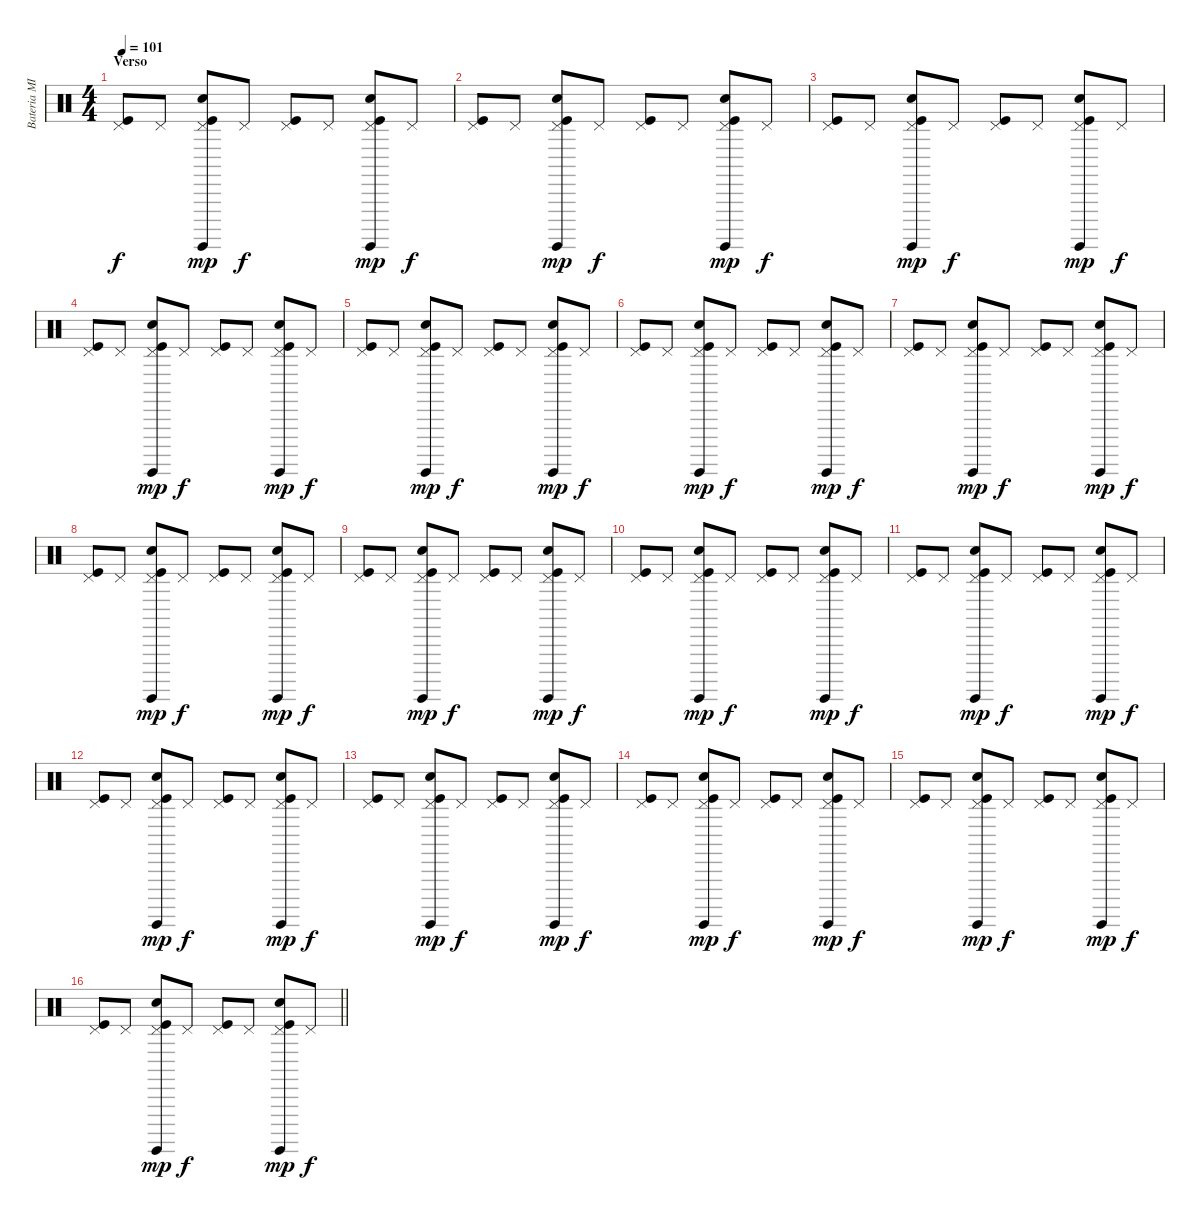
\track ("Bateria MIDI" "Bateria MI") {instrument percussion}
\staff {score}
\articulation defaults
\ts (4 4)
\section ("" "Verso")
\tempo 101
\clef neutral
\ks c
("Pedal Hi-Hat (hit)" "Kick (hit)").8{dy f} "Pedal Hi-Hat (hit)".8 ("Pedal Hi-Hat (hit)" "Surdo (hit)" "Electric Snare (hit)" "Kick (hit)").8{dy mp} "Pedal Hi-Hat (hit)".8{dy f} ("Pedal Hi-Hat (hit)" "Kick (hit)").8 "Pedal Hi-Hat (hit)".8 ("Pedal Hi-Hat (hit)" "Surdo (hit)" "Electric Snare (hit)" "Kick (hit)").8{dy mp} "Pedal Hi-Hat (hit)".8{dy f} |
("Pedal Hi-Hat (hit)" "Kick (hit)").8 "Pedal Hi-Hat (hit)".8 ("Pedal Hi-Hat (hit)" "Surdo (hit)" "Electric Snare (hit)" "Kick (hit)").8{dy mp} "Pedal Hi-Hat (hit)".8{dy f} ("Pedal Hi-Hat (hit)" "Kick (hit)").8 "Pedal Hi-Hat (hit)".8 ("Pedal Hi-Hat (hit)" "Surdo (hit)" "Electric Snare (hit)" "Kick (hit)").8{dy mp} "Pedal Hi-Hat (hit)".8{dy f} |
("Pedal Hi-Hat (hit)" "Kick (hit)").8 "Pedal Hi-Hat (hit)".8 ("Pedal Hi-Hat (hit)" "Surdo (hit)" "Electric Snare (hit)" "Kick (hit)").8{dy mp} "Pedal Hi-Hat (hit)".8{dy f} ("Pedal Hi-Hat (hit)" "Kick (hit)").8 "Pedal Hi-Hat (hit)".8 ("Pedal Hi-Hat (hit)" "Surdo (hit)" "Electric Snare (hit)" "Kick (hit)").8{dy mp} "Pedal Hi-Hat (hit)".8{dy f} |
("Pedal Hi-Hat (hit)" "Kick (hit)").8 "Pedal Hi-Hat (hit)".8 ("Pedal Hi-Hat (hit)" "Surdo (hit)" "Electric Snare (hit)" "Kick (hit)").8{dy mp} "Pedal Hi-Hat (hit)".8{dy f} ("Pedal Hi-Hat (hit)" "Kick (hit)").8 "Pedal Hi-Hat (hit)".8 ("Pedal Hi-Hat (hit)" "Surdo (hit)" "Electric Snare (hit)" "Kick (hit)").8{dy mp} "Pedal Hi-Hat (hit)".8{dy f} |
("Pedal Hi-Hat (hit)" "Kick (hit)").8 "Pedal Hi-Hat (hit)".8 ("Pedal Hi-Hat (hit)" "Surdo (hit)" "Electric Snare (hit)" "Kick (hit)").8{dy mp} "Pedal Hi-Hat (hit)".8{dy f} ("Pedal Hi-Hat (hit)" "Kick (hit)").8 "Pedal Hi-Hat (hit)".8 ("Pedal Hi-Hat (hit)" "Surdo (hit)" "Electric Snare (hit)" "Kick (hit)").8{dy mp} "Pedal Hi-Hat (hit)".8{dy f} |
("Pedal Hi-Hat (hit)" "Kick (hit)").8 "Pedal Hi-Hat (hit)".8 ("Pedal Hi-Hat (hit)" "Surdo (hit)" "Electric Snare (hit)" "Kick (hit)").8{dy mp} "Pedal Hi-Hat (hit)".8{dy f} ("Pedal Hi-Hat (hit)" "Kick (hit)").8 "Pedal Hi-Hat (hit)".8 ("Pedal Hi-Hat (hit)" "Surdo (hit)" "Electric Snare (hit)" "Kick (hit)").8{dy mp} "Pedal Hi-Hat (hit)".8{dy f} |
("Pedal Hi-Hat (hit)" "Kick (hit)").8 "Pedal Hi-Hat (hit)".8 ("Pedal Hi-Hat (hit)" "Surdo (hit)" "Electric Snare (hit)" "Kick (hit)").8{dy mp} "Pedal Hi-Hat (hit)".8{dy f} ("Pedal Hi-Hat (hit)" "Kick (hit)").8 "Pedal Hi-Hat (hit)".8 ("Pedal Hi-Hat (hit)" "Surdo (hit)" "Electric Snare (hit)" "Kick (hit)").8{dy mp} "Pedal Hi-Hat (hit)".8{dy f} |
("Pedal Hi-Hat (hit)" "Kick (hit)").8 "Pedal Hi-Hat (hit)".8 ("Pedal Hi-Hat (hit)" "Surdo (hit)" "Electric Snare (hit)" "Kick (hit)").8{dy mp} "Pedal Hi-Hat (hit)".8{dy f} ("Pedal Hi-Hat (hit)" "Kick (hit)").8 "Pedal Hi-Hat (hit)".8 ("Pedal Hi-Hat (hit)" "Surdo (hit)" "Electric Snare (hit)" "Kick (hit)").8{dy mp} "Pedal Hi-Hat (hit)".8{dy f} |
("Pedal Hi-Hat (hit)" "Kick (hit)").8 "Pedal Hi-Hat (hit)".8 ("Pedal Hi-Hat (hit)" "Surdo (hit)" "Electric Snare (hit)" "Kick (hit)").8{dy mp} "Pedal Hi-Hat (hit)".8{dy f} ("Pedal Hi-Hat (hit)" "Kick (hit)").8 "Pedal Hi-Hat (hit)".8 ("Pedal Hi-Hat (hit)" "Surdo (hit)" "Electric Snare (hit)" "Kick (hit)").8{dy mp} "Pedal Hi-Hat (hit)".8{dy f} |
("Pedal Hi-Hat (hit)" "Kick (hit)").8 "Pedal Hi-Hat (hit)".8 ("Pedal Hi-Hat (hit)" "Surdo (hit)" "Electric Snare (hit)" "Kick (hit)").8{dy mp} "Pedal Hi-Hat (hit)".8{dy f} ("Pedal Hi-Hat (hit)" "Kick (hit)").8 "Pedal Hi-Hat (hit)".8 ("Pedal Hi-Hat (hit)" "Surdo (hit)" "Electric Snare (hit)" "Kick (hit)").8{dy mp} "Pedal Hi-Hat (hit)".8{dy f} |
("Pedal Hi-Hat (hit)" "Kick (hit)").8 "Pedal Hi-Hat (hit)".8 ("Pedal Hi-Hat (hit)" "Surdo (hit)" "Electric Snare (hit)" "Kick (hit)").8{dy mp} "Pedal Hi-Hat (hit)".8{dy f} ("Pedal Hi-Hat (hit)" "Kick (hit)").8 "Pedal Hi-Hat (hit)".8 ("Pedal Hi-Hat (hit)" "Surdo (hit)" "Electric Snare (hit)" "Kick (hit)").8{dy mp} "Pedal Hi-Hat (hit)".8{dy f} |
("Pedal Hi-Hat (hit)" "Kick (hit)").8 "Pedal Hi-Hat (hit)".8 ("Pedal Hi-Hat (hit)" "Surdo (hit)" "Electric Snare (hit)" "Kick (hit)").8{dy mp} "Pedal Hi-Hat (hit)".8{dy f} ("Pedal Hi-Hat (hit)" "Kick (hit)").8 "Pedal Hi-Hat (hit)".8 ("Pedal Hi-Hat (hit)" "Surdo (hit)" "Electric Snare (hit)" "Kick (hit)").8{dy mp} "Pedal Hi-Hat (hit)".8{dy f} |
("Pedal Hi-Hat (hit)" "Kick (hit)").8 "Pedal Hi-Hat (hit)".8 ("Pedal Hi-Hat (hit)" "Surdo (hit)" "Electric Snare (hit)" "Kick (hit)").8{dy mp} "Pedal Hi-Hat (hit)".8{dy f} ("Pedal Hi-Hat (hit)" "Kick (hit)").8 "Pedal Hi-Hat (hit)".8 ("Pedal Hi-Hat (hit)" "Surdo (hit)" "Electric Snare (hit)" "Kick (hit)").8{dy mp} "Pedal Hi-Hat (hit)".8{dy f} |
("Pedal Hi-Hat (hit)" "Kick (hit)").8 "Pedal Hi-Hat (hit)".8 ("Pedal Hi-Hat (hit)" "Surdo (hit)" "Electric Snare (hit)" "Kick (hit)").8{dy mp} "Pedal Hi-Hat (hit)".8{dy f} ("Pedal Hi-Hat (hit)" "Kick (hit)").8 "Pedal Hi-Hat (hit)".8 ("Pedal Hi-Hat (hit)" "Surdo (hit)" "Electric Snare (hit)" "Kick (hit)").8{dy mp} "Pedal Hi-Hat (hit)".8{dy f} |
("Pedal Hi-Hat (hit)" "Kick (hit)").8 "Pedal Hi-Hat (hit)".8 ("Pedal Hi-Hat (hit)" "Surdo (hit)" "Electric Snare (hit)" "Kick (hit)").8{dy mp} "Pedal Hi-Hat (hit)".8{dy f} ("Pedal Hi-Hat (hit)" "Kick (hit)").8 "Pedal Hi-Hat (hit)".8 ("Pedal Hi-Hat (hit)" "Surdo (hit)" "Electric Snare (hit)" "Kick (hit)").8{dy mp} "Pedal Hi-Hat (hit)".8{dy f} |
\barLineRight lightlight
("Pedal Hi-Hat (hit)" "Kick (hit)").8 "Pedal Hi-Hat (hit)".8 ("Pedal Hi-Hat (hit)" "Surdo (hit)" "Electric Snare (hit)" "Kick (hit)").8{dy mp} "Pedal Hi-Hat (hit)".8{dy f} ("Pedal Hi-Hat (hit)" "Kick (hit)").8 "Pedal Hi-Hat (hit)".8 ("Pedal Hi-Hat (hit)" "Surdo (hit)" "Electric Snare (hit)" "Kick (hit)").8{dy mp} "Pedal Hi-Hat (hit)".8{dy f}
